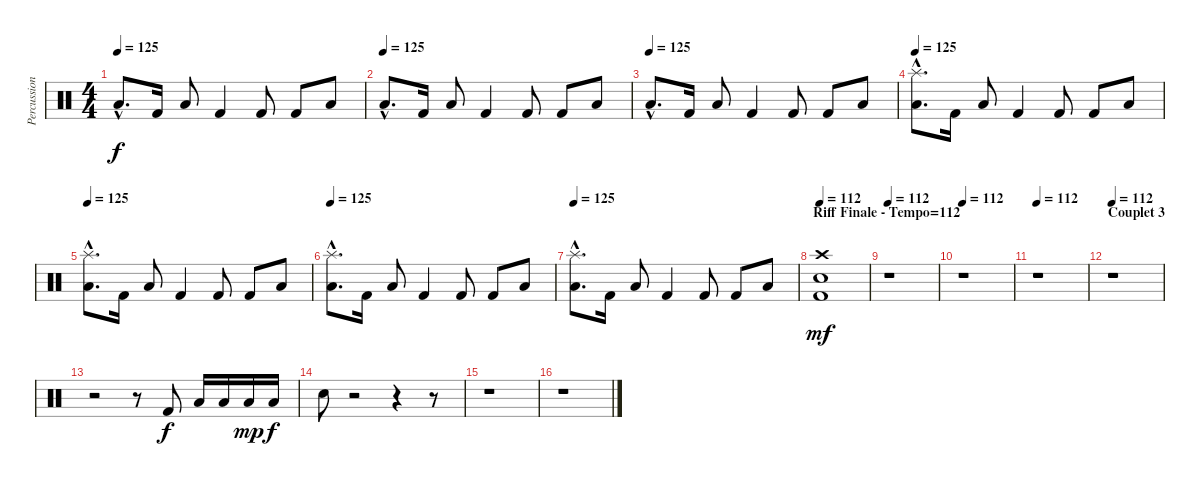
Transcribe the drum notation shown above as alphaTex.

\track ("Percussions" "Percussion") {instrument percussion}
\staff {score}
\articulation defaults
\ts (4 4)
\tempo 125
\clef neutral
\ks c "Low Tom (hit)"{hac}.8{d dy f} "Kick (hit) 2".16 "Low Tom (hit)".8 "Kick (hit) 2".4 "Kick (hit) 2".8 "Kick (hit) 2".8 "Low Tom (hit)".8
|
\tempo (125)
"Low Tom (hit)"{hac}.8{d} "Kick (hit) 2".16 "Low Tom (hit)".8 "Kick (hit) 2".4 "Kick (hit) 2".8 "Kick (hit) 2".8 "Low Tom (hit)".8 |
\tempo (125)
"Low Tom (hit)"{hac}.8{d} "Kick (hit) 2".16 "Low Tom (hit)".8 "Kick (hit) 2".4 "Kick (hit) 2".8 "Kick (hit) 2".8 "Low Tom (hit)".8 |
\tempo 125
("Splash (hit)"{hac} "Low Tom (hit)"{hac}).8{d} "Kick (hit) 2".16 "Low Tom (hit)".8 "Kick (hit) 2".4 "Kick (hit) 2".8 "Kick (hit) 2".8 "Low Tom (hit)".8 |
\tempo 125
("Splash (hit)"{hac} "Low Tom (hit)"{hac}).8{d} "Kick (hit) 2".16 "Low Tom (hit)".8 "Kick (hit) 2".4 "Kick (hit) 2".8 "Kick (hit) 2".8 "Low Tom (hit)".8 |
\tempo 125
("Splash (hit)"{hac} "Low Tom (hit)"{hac}).8{d} "Kick (hit) 2".16 "Low Tom (hit)".8 "Kick (hit) 2".4 "Kick (hit) 2".8 "Kick (hit) 2".8 "Low Tom (hit)".8 |
\tempo 125
("Splash (hit)"{hac} "Low Tom (hit)"{hac}).8{d} "Kick (hit) 2".16 "Low Tom (hit)".8 "Kick (hit) 2".4 "Kick (hit) 2".8 "Kick (hit) 2".8 "Low Tom (hit)".8 |
\section ("" "Riff Finale - Tempo=112")
\tempo 112
("Crash high (hit)" "Electric Snare (hit)" "Kick (hit) 2").1{dy mf} |
\tempo 112
r.1 |
\tempo 112
r.1 |
\tempo 112
r.1 |
\section ("" "Couplet 3")
\tempo 112
r.1 |
r.2 r.8 "Kick (hit) 2".8{dy f} "Low Tom (hit)".16 "Low Tom (hit)".16 "Low Tom (hit)".16{dy mp} "Low Tom (hit)".16{dy f} |
"Electric Snare (hit)".8 r.2 r.4 r.8 |
r.1 |
r.1
